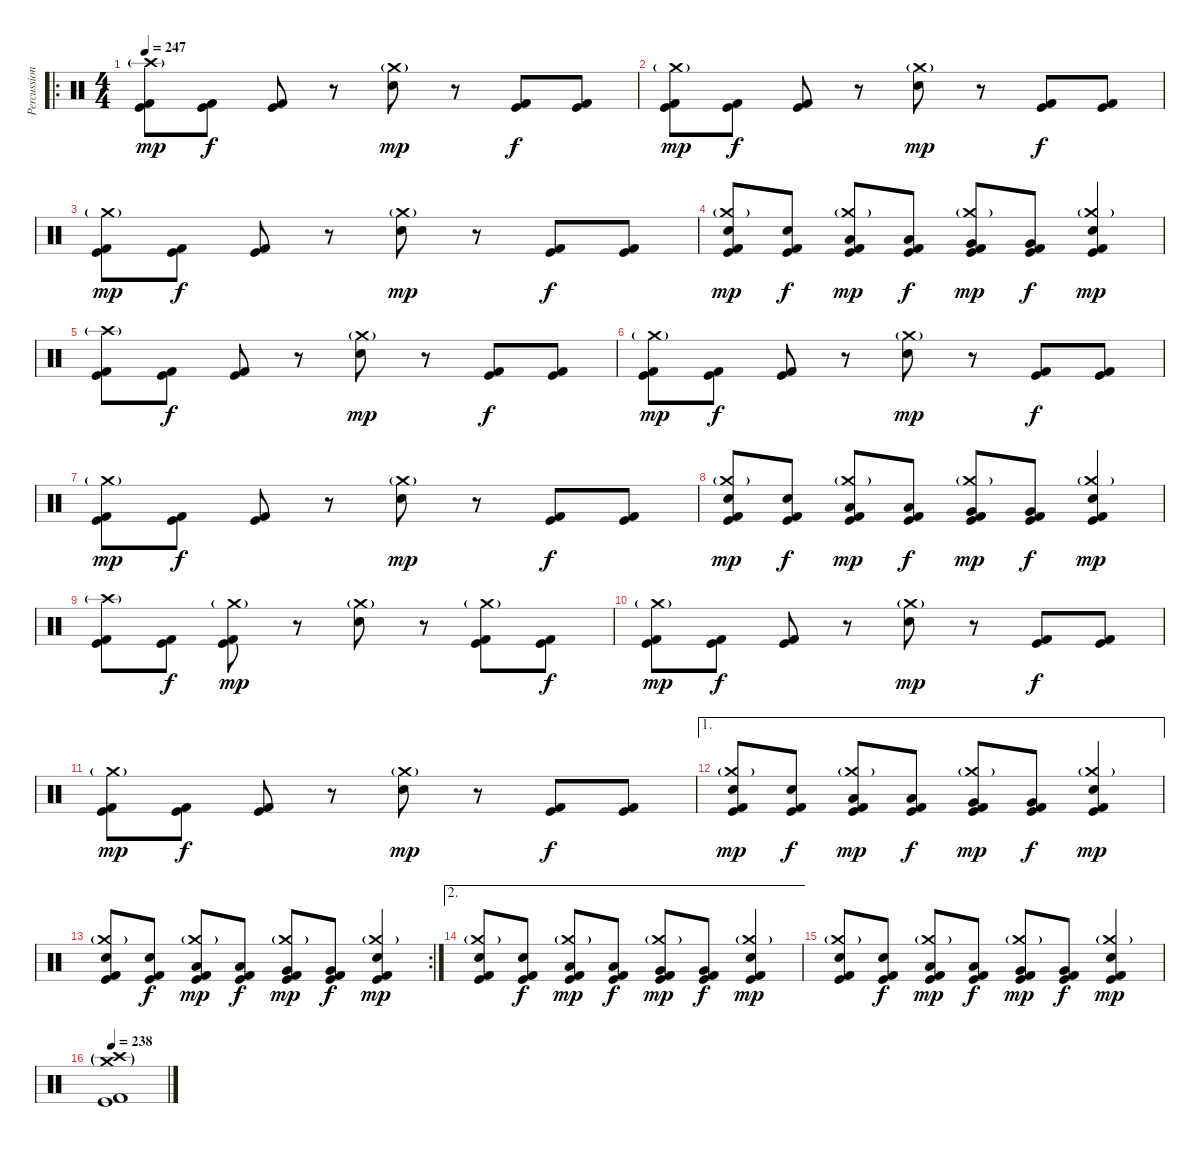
\track ("Percussion" "Percussion") {instrument percussion}
\staff {score}
\articulation defaults
\ro
\ts (4 4)
\tempo 247
\clef neutral
\ks c
("Crash high (hit)"{g} "Kick (hit)" "Kick (hit) 2").8{dy mp} ("Kick (hit)" "Kick (hit) 2").8{dy f} ("Kick (hit)" "Kick (hit) 2").8 r.8 ("Crash medium (hit)"{g} "Electric Snare (hit)").8{dy mp} r.8 ("Kick (hit)" "Kick (hit) 2").8{dy f} ("Kick (hit)" "Kick (hit) 2").8 |
("Crash medium (hit)"{g} "Kick (hit)" "Kick (hit) 2").8{dy mp} ("Kick (hit)" "Kick (hit) 2").8{dy f} ("Kick (hit)" "Kick (hit) 2").8 r.8 ("Crash medium (hit)"{g} "Electric Snare (hit)").8{dy mp} r.8 ("Kick (hit)" "Kick (hit) 2").8{dy f} ("Kick (hit)" "Kick (hit) 2").8 |
("Crash medium (hit)"{g} "Kick (hit)" "Kick (hit) 2").8{dy mp} ("Kick (hit)" "Kick (hit) 2").8{dy f} ("Kick (hit)" "Kick (hit) 2").8 r.8 ("Crash medium (hit)"{g} "Electric Snare (hit)").8{dy mp} r.8 ("Kick (hit)" "Kick (hit) 2").8{dy f} ("Kick (hit)" "Kick (hit) 2").8 |
("Crash medium (hit)"{g} "Electric Snare (hit)" "Kick (hit)" "Kick (hit) 2").8{dy mp} ("Electric Snare (hit)" "Kick (hit)" "Kick (hit) 2").8{dy f} ("Crash medium (hit)"{g} "Low Tom (hit)" "Kick (hit)" "Kick (hit) 2").8{dy mp} ("Low Tom (hit)" "Kick (hit)" "Kick (hit) 2").8{dy f} ("Crash medium (hit)"{g} "Very Low Tom (hit)" "Kick (hit)" "Kick (hit) 2").8{dy mp} ("Very Low Tom (hit)" "Kick (hit)" "Kick (hit) 2").8{dy f} ("Crash medium (hit)"{g} "Electric Snare (hit)" "Kick (hit)" "Kick (hit) 2").4{dy mp} |
("Crash high (hit)"{g} "Kick (hit)" "Kick (hit) 2").8 ("Kick (hit)" "Kick (hit) 2").8{dy f} ("Kick (hit)" "Kick (hit) 2").8 r.8 ("Crash medium (hit)"{g} "Electric Snare (hit)").8{dy mp} r.8 ("Kick (hit)" "Kick (hit) 2").8{dy f} ("Kick (hit)" "Kick (hit) 2").8 |
("Crash medium (hit)"{g} "Kick (hit)" "Kick (hit) 2").8{dy mp} ("Kick (hit)" "Kick (hit) 2").8{dy f} ("Kick (hit)" "Kick (hit) 2").8 r.8 ("Crash medium (hit)"{g} "Electric Snare (hit)").8{dy mp} r.8 ("Kick (hit)" "Kick (hit) 2").8{dy f} ("Kick (hit)" "Kick (hit) 2").8 |
("Crash medium (hit)"{g} "Kick (hit)" "Kick (hit) 2").8{dy mp} ("Kick (hit)" "Kick (hit) 2").8{dy f} ("Kick (hit)" "Kick (hit) 2").8 r.8 ("Crash medium (hit)"{g} "Electric Snare (hit)").8{dy mp} r.8 ("Kick (hit)" "Kick (hit) 2").8{dy f} ("Kick (hit)" "Kick (hit) 2").8 |
("Crash medium (hit)"{g} "Electric Snare (hit)" "Kick (hit)" "Kick (hit) 2").8{dy mp} ("Electric Snare (hit)" "Kick (hit)" "Kick (hit) 2").8{dy f} ("Crash medium (hit)"{g} "Low Tom (hit)" "Kick (hit)" "Kick (hit) 2").8{dy mp} ("Low Tom (hit)" "Kick (hit)" "Kick (hit) 2").8{dy f} ("Crash medium (hit)"{g} "Very Low Tom (hit)" "Kick (hit)" "Kick (hit) 2").8{dy mp} ("Very Low Tom (hit)" "Kick (hit)" "Kick (hit) 2").8{dy f} ("Crash medium (hit)"{g} "Electric Snare (hit)" "Kick (hit)" "Kick (hit) 2").4{dy mp} |
("Crash high (hit)"{g} "Kick (hit)" "Kick (hit) 2").8 ("Kick (hit)" "Kick (hit) 2").8{dy f} ("Crash medium (hit)"{g} "Kick (hit)" "Kick (hit) 2").8{dy mp} r.8 ("Crash medium (hit)"{g} "Electric Snare (hit)").8 r.8 ("Crash medium (hit)"{g} "Kick (hit)" "Kick (hit) 2").8 ("Kick (hit)" "Kick (hit) 2").8{dy f} |
("Crash medium (hit)"{g} "Kick (hit)" "Kick (hit) 2").8{dy mp} ("Kick (hit)" "Kick (hit) 2").8{dy f} ("Kick (hit)" "Kick (hit) 2").8 r.8 ("Crash medium (hit)"{g} "Electric Snare (hit)").8{dy mp} r.8 ("Kick (hit)" "Kick (hit) 2").8{dy f} ("Kick (hit)" "Kick (hit) 2").8 |
("Crash medium (hit)"{g} "Kick (hit)" "Kick (hit) 2").8{dy mp} ("Kick (hit)" "Kick (hit) 2").8{dy f} ("Kick (hit)" "Kick (hit) 2").8 r.8 ("Crash medium (hit)"{g} "Electric Snare (hit)").8{dy mp} r.8 ("Kick (hit)" "Kick (hit) 2").8{dy f} ("Kick (hit)" "Kick (hit) 2").8 |
\ae 1
("Crash medium (hit)"{g} "Electric Snare (hit)" "Kick (hit)" "Kick (hit) 2").8{dy mp} ("Electric Snare (hit)" "Kick (hit)" "Kick (hit) 2").8{dy f} ("Crash medium (hit)"{g} "Low Tom (hit)" "Kick (hit)" "Kick (hit) 2").8{dy mp} ("Low Tom (hit)" "Kick (hit)" "Kick (hit) 2").8{dy f} ("Crash medium (hit)"{g} "Very Low Tom (hit)" "Kick (hit)" "Kick (hit) 2").8{dy mp} ("Very Low Tom (hit)" "Kick (hit)" "Kick (hit) 2").8{dy f} ("Crash medium (hit)"{g} "Electric Snare (hit)" "Kick (hit)" "Kick (hit) 2").4{dy mp} |
\rc 2
("Crash medium (hit)"{g} "Electric Snare (hit)" "Kick (hit)" "Kick (hit) 2").8 ("Electric Snare (hit)" "Kick (hit)" "Kick (hit) 2").8{dy f} ("Crash medium (hit)"{g} "Low Tom (hit)" "Kick (hit)" "Kick (hit) 2").8{dy mp} ("Low Tom (hit)" "Kick (hit)" "Kick (hit) 2").8{dy f} ("Crash medium (hit)"{g} "Very Low Tom (hit)" "Kick (hit)" "Kick (hit) 2").8{dy mp} ("Very Low Tom (hit)" "Kick (hit)" "Kick (hit) 2").8{dy f} ("Crash medium (hit)"{g} "Electric Snare (hit)" "Kick (hit)" "Kick (hit) 2").4{dy mp} |
\ae 2
("Crash medium (hit)"{g} "Electric Snare (hit)" "Kick (hit)" "Kick (hit) 2").8 ("Electric Snare (hit)" "Kick (hit)" "Kick (hit) 2").8{dy f} ("Crash medium (hit)"{g} "Low Tom (hit)" "Kick (hit)" "Kick (hit) 2").8{dy mp} ("Low Tom (hit)" "Kick (hit)" "Kick (hit) 2").8{dy f} ("Crash medium (hit)"{g} "Very Low Tom (hit)" "Kick (hit)" "Kick (hit) 2").8{dy mp} ("Very Low Tom (hit)" "Kick (hit)" "Kick (hit) 2").8{dy f} ("Crash medium (hit)"{g} "Electric Snare (hit)" "Kick (hit)" "Kick (hit) 2").4{dy mp} |
("Crash medium (hit)"{g} "Electric Snare (hit)" "Kick (hit)" "Kick (hit) 2").8 ("Electric Snare (hit)" "Kick (hit)" "Kick (hit) 2").8{dy f} ("Crash medium (hit)"{g} "Low Tom (hit)" "Kick (hit)" "Kick (hit) 2").8{dy mp} ("Low Tom (hit)" "Kick (hit)" "Kick (hit) 2").8{dy f} ("Crash medium (hit)"{g} "Very Low Tom (hit)" "Kick (hit)" "Kick (hit) 2").8{dy mp} ("Very Low Tom (hit)" "Kick (hit)" "Kick (hit) 2").8{dy f} ("Crash medium (hit)"{g} "Electric Snare (hit)" "Kick (hit)" "Kick (hit) 2").4{dy mp} |
\tempo 238
("Crash medium (hit)"{g} "Crash high (hit)"{g} "Kick (hit)" "Kick (hit) 2").1
